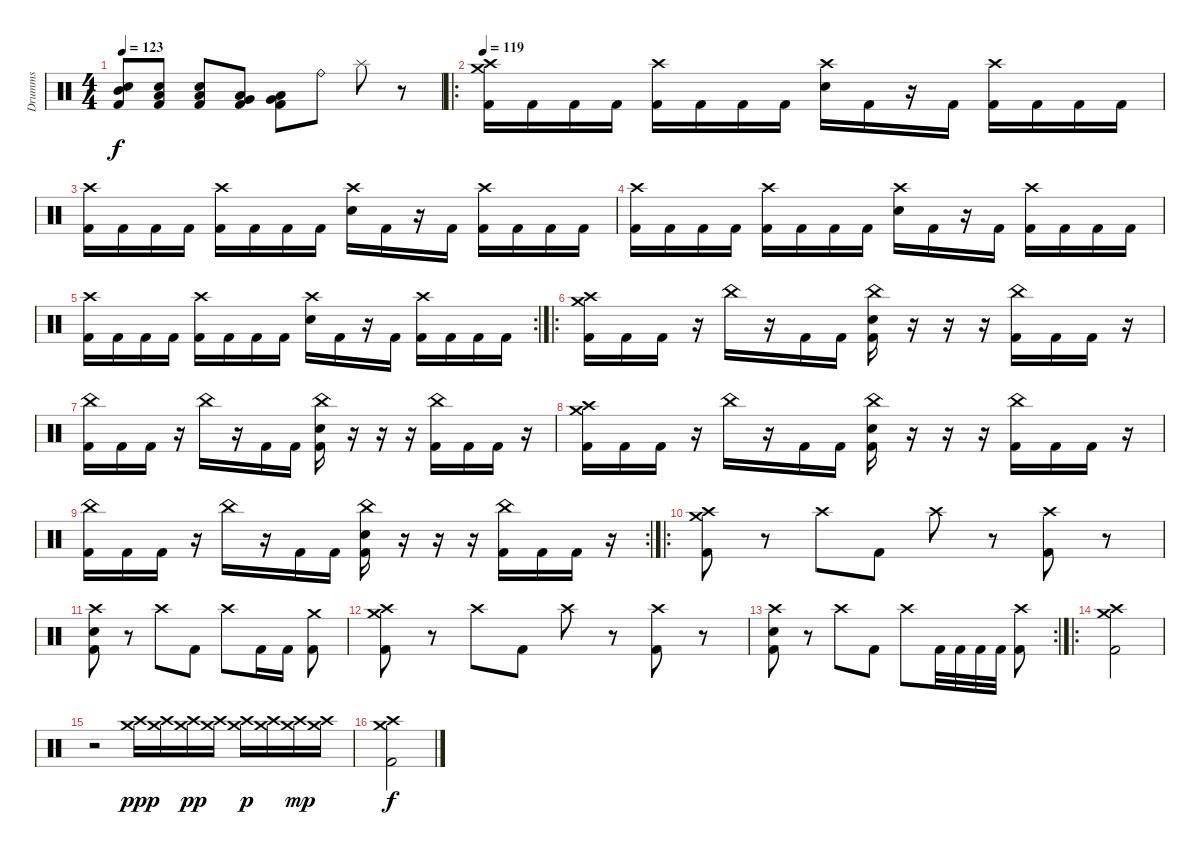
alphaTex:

\track ("Drumms" "Drumms") {instrument percussion}
\staff {score}
\articulation defaults
\ts (4 4)
\tempo 123
\clef neutral
\ks c
("Mid Tom (hit)" "Electric Snare (hit)" "Kick (hit) 2").8{dy f} ("Low Tom (hit)" "Electric Snare (hit)" "Kick (hit) 2").8 ("Low Tom (hit)" "Electric Snare (hit)" "Kick (hit) 2").8 ("Low Tom (hit)" "Very Low Tom (hit)" "Kick (hit) 2").8 ("Low Tom (hit)" "Very Low Tom (hit)" "Kick (hit) 2").8 "Ride (bell)".8 "Splash (hit)".8 r.8 |
\ro
\tempo 119
("Crash high (hit)" "Crash medium (hit)" "Kick (hit) 2").16 "Kick (hit) 2".16 "Kick (hit) 2".16 "Kick (hit) 2".16 ("Crash high (hit)" "Kick (hit) 2").16 "Kick (hit) 2".16 "Kick (hit) 2".16 "Kick (hit) 2".16 ("Crash high (hit)" "Electric Snare (hit)").16 "Kick (hit) 2".16 r.16 "Kick (hit) 2".16 ("Crash high (hit)" "Kick (hit) 2").16 "Kick (hit) 2".16 "Kick (hit) 2".16 "Kick (hit) 2".16 |
("Crash high (hit)" "Kick (hit) 2").16 "Kick (hit) 2".16 "Kick (hit) 2".16 "Kick (hit) 2".16 ("Crash high (hit)" "Kick (hit) 2").16 "Kick (hit) 2".16 "Kick (hit) 2".16 "Kick (hit) 2".16 ("Crash high (hit)" "Electric Snare (hit)").16 "Kick (hit) 2".16 r.16 "Kick (hit) 2".16 ("Crash high (hit)" "Kick (hit) 2").16 "Kick (hit) 2".16 "Kick (hit) 2".16 "Kick (hit) 2".16 |
("Crash high (hit)" "Kick (hit) 2").16 "Kick (hit) 2".16 "Kick (hit) 2".16 "Kick (hit) 2".16 ("Crash high (hit)" "Kick (hit) 2").16 "Kick (hit) 2".16 "Kick (hit) 2".16 "Kick (hit) 2".16 ("Crash high (hit)" "Electric Snare (hit)").16 "Kick (hit) 2".16 r.16 "Kick (hit) 2".16 ("Crash high (hit)" "Kick (hit) 2").16 "Kick (hit) 2".16 "Kick (hit) 2".16 "Kick (hit) 2".16 |
\rc 2
("Crash high (hit)" "Kick (hit) 2").16 "Kick (hit) 2".16 "Kick (hit) 2".16 "Kick (hit) 2".16 ("Crash high (hit)" "Kick (hit) 2").16 "Kick (hit) 2".16 "Kick (hit) 2".16 "Kick (hit) 2".16 ("Crash high (hit)" "Electric Snare (hit)").16 "Kick (hit) 2".16 r.16 "Kick (hit) 2".16 ("Crash high (hit)" "Kick (hit) 2").16 "Kick (hit) 2".16 "Kick (hit) 2".16 "Kick (hit) 2".16 |
\ro
("Crash high (hit)" "Crash medium (hit)" "Kick (hit) 2").16 "Kick (hit) 2".16 "Kick (hit) 2".16 r.16 "China (hit)".16 r.16 "Kick (hit) 2".16 "Kick (hit) 2".16 ("China (hit)" "Electric Snare (hit)" "Kick (hit) 2").16 r.16 r.16 r.16 ("China (hit)" "Kick (hit) 2").16 "Kick (hit) 2".16 "Kick (hit) 2".16 r.16 |
("China (hit)" "Kick (hit) 2").16 "Kick (hit) 2".16 "Kick (hit) 2".16 r.16 "China (hit)".16 r.16 "Kick (hit) 2".16 "Kick (hit) 2".16 ("China (hit)" "Electric Snare (hit)" "Kick (hit) 2").16 r.16 r.16 r.16 ("China (hit)" "Kick (hit) 2").16 "Kick (hit) 2".16 "Kick (hit) 2".16 r.16 |
("Crash high (hit)" "Crash medium (hit)" "Kick (hit) 2").16 "Kick (hit) 2".16 "Kick (hit) 2".16 r.16 "China (hit)".16 r.16 "Kick (hit) 2".16 "Kick (hit) 2".16 ("China (hit)" "Electric Snare (hit)" "Kick (hit) 2").16 r.16 r.16 r.16 ("China (hit)" "Kick (hit) 2").16 "Kick (hit) 2".16 "Kick (hit) 2".16 r.16 |
\rc 2
("China (hit)" "Kick (hit) 2").16 "Kick (hit) 2".16 "Kick (hit) 2".16 r.16 "China (hit)".16 r.16 "Kick (hit) 2".16 "Kick (hit) 2".16 ("China (hit)" "Electric Snare (hit)" "Kick (hit) 2").16 r.16 r.16 r.16 ("China (hit)" "Kick (hit) 2").16 "Kick (hit) 2".16 "Kick (hit) 2".16 r.16 |
\ro
("Crash medium (hit)" "Crash high (hit)" "Kick (hit) 2").8 r.8 "Crash high (hit)".8 "Kick (hit) 2".8 "Crash high (hit)".8 r.8 ("Crash high (hit)" "Kick (hit) 2").8 r.8 |
("Crash high (hit)" "Electric Snare (hit)" "Kick (hit) 2").8 r.8 "Crash high (hit)".8 "Kick (hit) 2".8 "Crash high (hit)".8 "Kick (hit) 2".16 "Kick (hit) 2".16 ("Crash medium (hit)" "Kick (hit) 2").8 |
("Crash high (hit)" "Crash medium (hit)" "Kick (hit) 2").8 r.8 "Crash high (hit)".8 "Kick (hit) 2".8 "Crash high (hit)".8 r.8 ("Crash high (hit)" "Kick (hit) 2").8 r.8 |
\rc 2
("Crash high (hit)" "Electric Snare (hit)" "Kick (hit) 2").8 r.8 "Crash high (hit)".8 "Kick (hit) 2".8 "Crash high (hit)".8 "Kick (hit) 2".32 "Kick (hit) 2".32 "Kick (hit) 2".32 "Kick (hit) 2".32 ("Crash high (hit)" "Kick (hit) 2").8 |
\ro
("Crash medium (hit)" "Crash high (hit)" "Kick (hit) 2").2 |
r.2 ("Crash high (hit)" "Crash medium (hit)").16{dy ppp} ("Crash high (hit)" "Crash medium (hit)").16 ("Crash high (hit)" "Crash medium (hit)").16{dy pp} ("Crash high (hit)" "Crash medium (hit)").16 ("Crash high (hit)" "Crash medium (hit)").16{dy p} ("Crash high (hit)" "Crash medium (hit)").16 ("Crash high (hit)" "Crash medium (hit)").16{dy mp} ("Crash high (hit)" "Crash medium (hit)").16 |
("Crash medium (hit)" "Crash high (hit)" "Kick (hit) 2").2{dy f}
